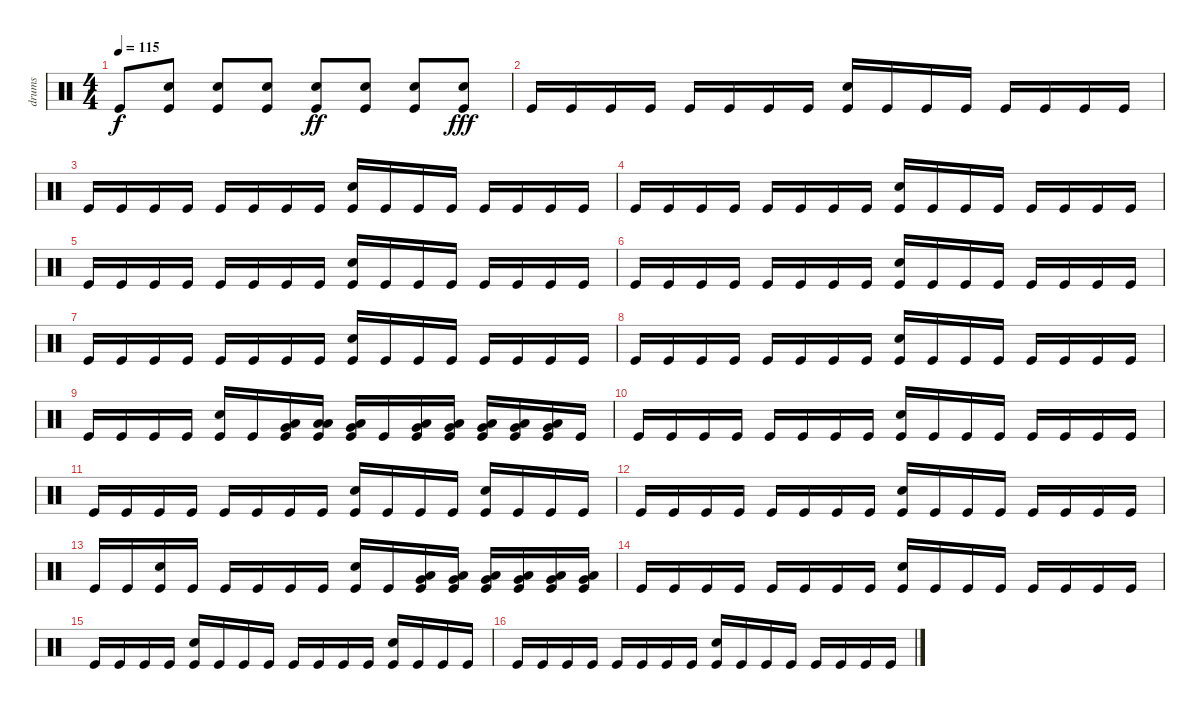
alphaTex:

\track ("drums" "drums") {instrument percussion}
\staff {score}
\articulation defaults
\ts (4 4)
\tempo 115
\clef neutral
\ks c "Kick (hit)".8{dy f}
("Electric Snare (hit)" "Kick (hit)").8 ("Electric Snare (hit)" "Kick (hit)").8 ("Electric Snare (hit)" "Kick (hit)").8 ("Electric Snare (hit)" "Kick (hit)").8{dy ff} ("Electric Snare (hit)" "Kick (hit)").8 ("Electric Snare (hit)" "Kick (hit)").8 ("Electric Snare (hit)" "Kick (hit)").8{dy fff} |
"Kick (hit)".16 "Kick (hit)".16 "Kick (hit)".16 "Kick (hit)".16 "Kick (hit)".16 "Kick (hit)".16 "Kick (hit)".16 "Kick (hit)".16 ("Electric Snare (hit)" "Kick (hit)").16 "Kick (hit)".16 "Kick (hit)".16 "Kick (hit)".16 "Kick (hit)".16 "Kick (hit)".16 "Kick (hit)".16 "Kick (hit)".16 |
"Kick (hit)".16 "Kick (hit)".16 "Kick (hit)".16 "Kick (hit)".16 "Kick (hit)".16 "Kick (hit)".16 "Kick (hit)".16 "Kick (hit)".16 ("Electric Snare (hit)" "Kick (hit)").16 "Kick (hit)".16 "Kick (hit)".16 "Kick (hit)".16 "Kick (hit)".16 "Kick (hit)".16 "Kick (hit)".16 "Kick (hit)".16 |
"Kick (hit)".16 "Kick (hit)".16 "Kick (hit)".16 "Kick (hit)".16 "Kick (hit)".16 "Kick (hit)".16 "Kick (hit)".16 "Kick (hit)".16 ("Electric Snare (hit)" "Kick (hit)").16 "Kick (hit)".16 "Kick (hit)".16 "Kick (hit)".16 "Kick (hit)".16 "Kick (hit)".16 "Kick (hit)".16 "Kick (hit)".16 |
"Kick (hit)".16 "Kick (hit)".16 "Kick (hit)".16 "Kick (hit)".16 "Kick (hit)".16 "Kick (hit)".16 "Kick (hit)".16 "Kick (hit)".16 ("Electric Snare (hit)" "Kick (hit)").16 "Kick (hit)".16 "Kick (hit)".16 "Kick (hit)".16 "Kick (hit)".16 "Kick (hit)".16 "Kick (hit)".16 "Kick (hit)".16 |
"Kick (hit)".16 "Kick (hit)".16 "Kick (hit)".16 "Kick (hit)".16 "Kick (hit)".16 "Kick (hit)".16 "Kick (hit)".16 "Kick (hit)".16 ("Electric Snare (hit)" "Kick (hit)").16 "Kick (hit)".16 "Kick (hit)".16 "Kick (hit)".16 "Kick (hit)".16 "Kick (hit)".16 "Kick (hit)".16 "Kick (hit)".16 |
"Kick (hit)".16 "Kick (hit)".16 "Kick (hit)".16 "Kick (hit)".16 "Kick (hit)".16 "Kick (hit)".16 "Kick (hit)".16 "Kick (hit)".16 ("Electric Snare (hit)" "Kick (hit)").16 "Kick (hit)".16 "Kick (hit)".16 "Kick (hit)".16 "Kick (hit)".16 "Kick (hit)".16 "Kick (hit)".16 "Kick (hit)".16 |
"Kick (hit)".16 "Kick (hit)".16 "Kick (hit)".16 "Kick (hit)".16 "Kick (hit)".16 "Kick (hit)".16 "Kick (hit)".16 "Kick (hit)".16 ("Electric Snare (hit)" "Kick (hit)").16 "Kick (hit)".16 "Kick (hit)".16 "Kick (hit)".16 "Kick (hit)".16 "Kick (hit)".16 "Kick (hit)".16 "Kick (hit)".16 |
"Kick (hit)".16 "Kick (hit)".16 "Kick (hit)".16 "Kick (hit)".16 ("Electric Snare (hit)" "Kick (hit)").16 "Kick (hit)".16 ("Low Tom (hit)" "Very Low Tom (hit)" "Kick (hit)").16 ("Low Tom (hit)" "Low Tom (hit)" "Kick (hit)").16 ("Low Tom (hit)" "Very Low Tom (hit)" "Kick (hit)").16 "Kick (hit)".16 ("Very Low Tom (hit)" "Low Floor Tom (hit)" "Kick (hit)").16 ("Very Low Tom (hit)" "Low Floor Tom (hit)" "Kick (hit)").16 ("Very Low Tom (hit)" "Low Floor Tom (hit)" "Kick (hit)").16 ("Very Low Tom (hit)" "Low Floor Tom (hit)" "Kick (hit)").16 ("Very Low Tom (hit)" "Low Floor Tom (hit)" "Kick (hit)").16 "Kick (hit)".16 |
"Kick (hit)".16 "Kick (hit)".16 "Kick (hit)".16 "Kick (hit)".16 "Kick (hit)".16 "Kick (hit)".16 "Kick (hit)".16 "Kick (hit)".16 ("Electric Snare (hit)" "Kick (hit)").16 "Kick (hit)".16 "Kick (hit)".16 "Kick (hit)".16 "Kick (hit)".16 "Kick (hit)".16 "Kick (hit)".16 "Kick (hit)".16 |
"Kick (hit)".16 "Kick (hit)".16 "Kick (hit)".16 "Kick (hit)".16 "Kick (hit)".16 "Kick (hit)".16 "Kick (hit)".16 "Kick (hit)".16 ("Electric Snare (hit)" "Kick (hit)").16 "Kick (hit)".16 "Kick (hit)".16 "Kick (hit)".16 ("Electric Snare (hit)" "Kick (hit)").16 "Kick (hit)".16 "Kick (hit)".16 "Kick (hit)".16 |
"Kick (hit)".16 "Kick (hit)".16 "Kick (hit)".16 "Kick (hit)".16 "Kick (hit)".16 "Kick (hit)".16 "Kick (hit)".16 "Kick (hit)".16 ("Electric Snare (hit)" "Kick (hit)").16 "Kick (hit)".16 "Kick (hit)".16 "Kick (hit)".16 "Kick (hit)".16 "Kick (hit)".16 "Kick (hit)".16 "Kick (hit)".16 |
"Kick (hit)".16 "Kick (hit)".16 ("Electric Snare (hit)" "Kick (hit)").16 "Kick (hit)".16 "Kick (hit)".16 "Kick (hit)".16 "Kick (hit)".16 "Kick (hit)".16 ("Electric Snare (hit)" "Kick (hit)").16 "Kick (hit)".16 ("Low Tom (hit)" "Very Low Tom (hit)" "Kick (hit)").16 ("Low Tom (hit)" "Very Low Tom (hit)" "Kick (hit)").16 ("Very Low Tom (hit)" "Low Floor Tom (hit)" "Kick (hit)").16 ("Very Low Tom (hit)" "Low Floor Tom (hit)" "Kick (hit)").16 ("Very Low Tom (hit)" "Low Floor Tom (hit)" "Kick (hit)").16 ("Very Low Tom (hit)" "Low Floor Tom (hit)" "Kick (hit)").16 |
"Kick (hit)".16 "Kick (hit)".16 "Kick (hit)".16 "Kick (hit)".16 "Kick (hit)".16 "Kick (hit)".16 "Kick (hit)".16 "Kick (hit)".16 ("Electric Snare (hit)" "Kick (hit)").16 "Kick (hit)".16 "Kick (hit)".16 "Kick (hit)".16 "Kick (hit)".16 "Kick (hit)".16 "Kick (hit)".16 "Kick (hit)".16 |
"Kick (hit)".16 "Kick (hit)".16 "Kick (hit)".16 "Kick (hit)".16 ("Electric Snare (hit)" "Kick (hit)").16 "Kick (hit)".16 "Kick (hit)".16 "Kick (hit)".16 "Kick (hit)".16 "Kick (hit)".16 "Kick (hit)".16 "Kick (hit)".16 ("Electric Snare (hit)" "Kick (hit)").16 "Kick (hit)".16 "Kick (hit)".16 "Kick (hit)".16 |
"Kick (hit)".16 "Kick (hit)".16 "Kick (hit)".16 "Kick (hit)".16 "Kick (hit)".16 "Kick (hit)".16 "Kick (hit)".16 "Kick (hit)".16 ("Electric Snare (hit)" "Kick (hit)").16 "Kick (hit)".16 "Kick (hit)".16 "Kick (hit)".16 "Kick (hit)".16 "Kick (hit)".16 "Kick (hit)".16 "Kick (hit)".16
